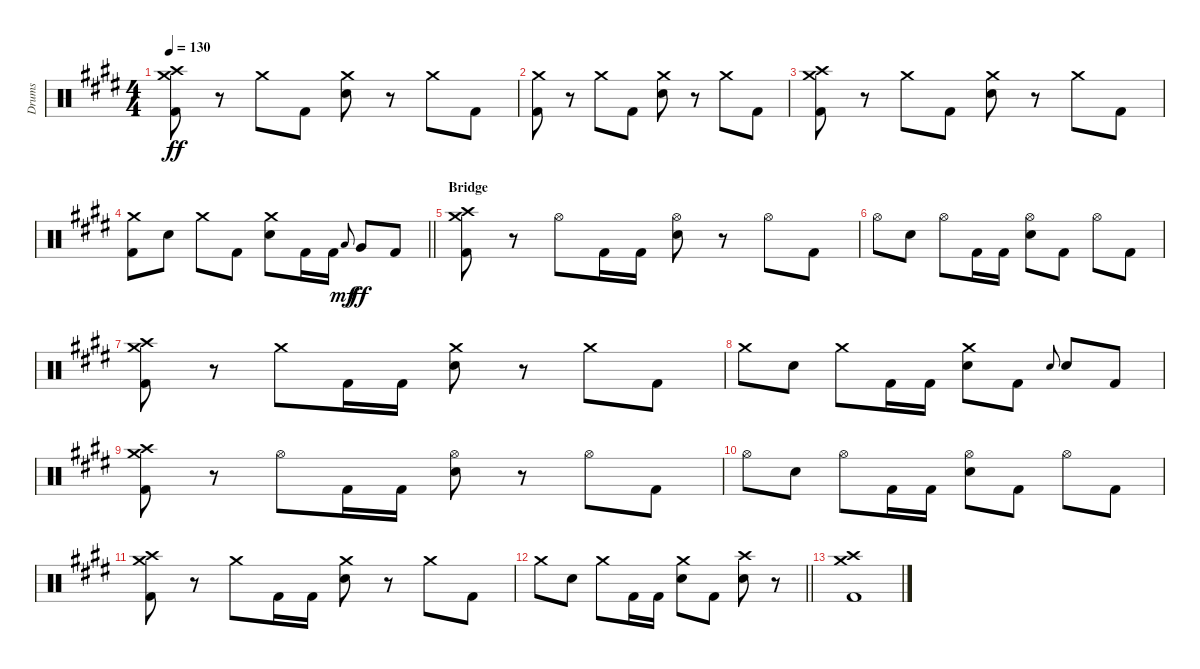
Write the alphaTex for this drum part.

\track ("Drums" "Drums") {instrument percussion}
\staff {score}
\articulation defaults
\ts (4 4)
\tempo 130
\clef neutral
\ks c#minor
("Crash medium (hit)" "Crash high (hit)" "Kick (hit) 2").8{dy ff} r.8 "Crash medium (hit)".8 "Kick (hit) 2".8 ("Crash medium (hit)" "Electric Snare (hit)").8 r.8 "Crash medium (hit)".8 "Kick (hit) 2".8 |
("Crash medium (hit)" "Kick (hit) 2").8 r.8 "Crash medium (hit)".8 "Kick (hit) 2".8 ("Crash medium (hit)" "Electric Snare (hit)").8 r.8 "Crash medium (hit)".8 "Kick (hit) 2".8 |
("Crash medium (hit)" "Crash high (hit)" "Kick (hit) 2").8 r.8 "Crash medium (hit)".8 "Kick (hit) 2".8 ("Crash medium (hit)" "Electric Snare (hit)").8 r.8 "Crash medium (hit)".8 "Kick (hit) 2".8 |
\barLineRight lightlight
("Crash medium (hit)" "Kick (hit) 2").8 "Electric Snare (hit)".8 "Crash medium (hit)".8 "Kick (hit) 2".8 ("Crash medium (hit)" "Electric Snare (hit)").8 "Kick (hit) 2".16 "Kick (hit) 2".16 "Low Floor Tom (hit)".8{gr onbeat dy mf} "Very Low Tom (hit)".8{dy ff} "Kick (hit) 2".8 |
\section ("" "Bridge")
("Crash medium (hit)" "Crash high (hit)" "Kick (hit) 2").8 r.8 "Hi-Hat (open)".8 "Kick (hit) 2".16 "Kick (hit) 2".16 ("Hi-Hat (open)" "Electric Snare (hit)").8 r.8 "Hi-Hat (open)".8 "Kick (hit) 2".8 |
"Hi-Hat (open)".8 "Electric Snare (hit)".8 "Hi-Hat (open)".8 "Kick (hit) 2".16 "Kick (hit) 2".16 ("Hi-Hat (open)" "Electric Snare (hit)").8 "Kick (hit) 2".8 "Hi-Hat (open)".8 "Kick (hit) 2".8 |
("Crash medium (hit)" "Crash high (hit)" "Kick (hit) 2").8 r.8 "Crash medium (hit)".8 "Kick (hit) 2".16 "Kick (hit) 2".16 ("Crash medium (hit)" "Electric Snare (hit)").8 r.8 "Crash medium (hit)".8 "Kick (hit) 2".8 |
"Crash medium (hit)".8 "Electric Snare (hit)".8 "Crash medium (hit)".8 "Kick (hit) 2".16 "Kick (hit) 2".16 ("Crash medium (hit)" "Electric Snare (hit)").8 "Kick (hit) 2".8 "Electric Snare (hit)".8{gr onbeat} "Electric Snare (hit)".8 "Kick (hit) 2".8 |
("Crash medium (hit)" "Crash high (hit)" "Kick (hit) 2").8 r.8 "Hi-Hat (open)".8 "Kick (hit) 2".16 "Kick (hit) 2".16 ("Hi-Hat (open)" "Electric Snare (hit)").8 r.8 "Hi-Hat (open)".8 "Kick (hit) 2".8 |
"Hi-Hat (open)".8 "Electric Snare (hit)".8 "Hi-Hat (open)".8 "Kick (hit) 2".16 "Kick (hit) 2".16 ("Hi-Hat (open)" "Electric Snare (hit)").8 "Kick (hit) 2".8 "Hi-Hat (open)".8 "Kick (hit) 2".8 |
("Crash medium (hit)" "Crash high (hit)" "Kick (hit) 2").8 r.8 "Crash medium (hit)".8 "Kick (hit) 2".16 "Kick (hit) 2".16 ("Crash medium (hit)" "Electric Snare (hit)").8 r.8 "Crash medium (hit)".8 "Kick (hit) 2".8 |
\barLineRight lightlight "Crash medium (hit)".8 "Electric Snare (hit)".8 "Crash medium (hit)".8 "Kick (hit) 2".16 "Kick (hit) 2".16
("Crash medium (hit)" "Electric Snare (hit)").8 "Kick (hit) 2".8 ("Crash high (hit)" "Electric Snare (hit)").8 r.8 |
("Crash medium (hit)" "Crash high (hit)" "Kick (hit) 2").1
